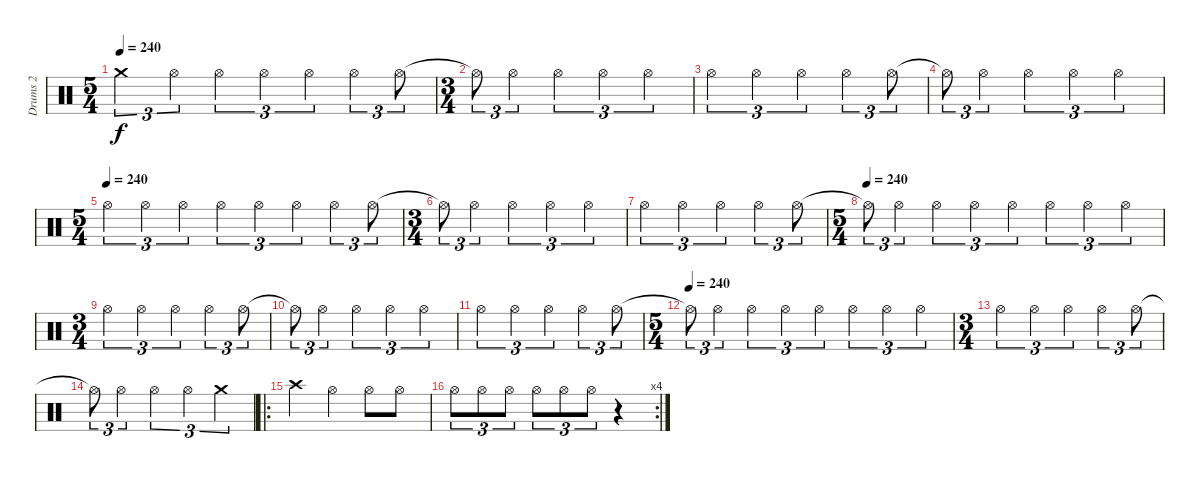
\track ("Drums 2" "Drums 2") {instrument percussion}
\staff {score}
\articulation defaults
\ts (5 4)
\tempo 250
\tempo 240
\clef neutral
\ks c "Crash medium (hit)".2{tu (3 2) dy f} "Hi-Hat (open)".4{tu (3 2)} "Hi-Hat (open)".4{tu (3 2)} "Hi-Hat (open)".4{tu (3 2)} "Hi-Hat (open)".4{tu (3 2)} "Hi-Hat (open)".4{tu (3 2)} "Hi-Hat (open)".8{tu (3 2)}
|
\ts (3 4)
"Hi-Hat (open)"{t}.8{tu (3 2)} "Hi-Hat (open)".4{tu (3 2)} "Hi-Hat (open)".4{tu (3 2)} "Hi-Hat (open)".4{tu (3 2)} "Hi-Hat (open)".4{tu (3 2)} |
"Hi-Hat (open)".4{tu (3 2)} "Hi-Hat (open)".4{tu (3 2)} "Hi-Hat (open)".4{tu (3 2)} "Hi-Hat (open)".4{tu (3 2)} "Hi-Hat (open)".8{tu (3 2)} |
"Hi-Hat (open)"{t}.8{tu (3 2)} "Hi-Hat (open)".4{tu (3 2)} "Hi-Hat (open)".4{tu (3 2)} "Hi-Hat (open)".4{tu (3 2)} "Hi-Hat (open)".4{tu (3 2)} |
\ts (5 4)
\tempo (240)
"Hi-Hat (open)".4{tu (3 2)} "Hi-Hat (open)".4{tu (3 2)} "Hi-Hat (open)".4{tu (3 2)} "Hi-Hat (open)".4{tu (3 2)} "Hi-Hat (open)".4{tu (3 2)} "Hi-Hat (open)".4{tu (3 2)} "Hi-Hat (open)".4{tu (3 2)} "Hi-Hat (open)".8{tu (3 2)} |
\ts (3 4)
"Hi-Hat (open)"{t}.8{tu (3 2)} "Hi-Hat (open)".4{tu (3 2)} "Hi-Hat (open)".4{tu (3 2)} "Hi-Hat (open)".4{tu (3 2)} "Hi-Hat (open)".4{tu (3 2)} |
"Hi-Hat (open)".4{tu (3 2)} "Hi-Hat (open)".4{tu (3 2)} "Hi-Hat (open)".4{tu (3 2)} "Hi-Hat (open)".4{tu (3 2)} "Hi-Hat (open)".8{tu (3 2)} |
\ts (5 4)
\tempo (240)
"Hi-Hat (open)"{t}.8{tu (3 2)} "Hi-Hat (open)".4{tu (3 2)} "Hi-Hat (open)".4{tu (3 2)} "Hi-Hat (open)".4{tu (3 2)} "Hi-Hat (open)".4{tu (3 2)} "Hi-Hat (open)".4{tu (3 2)} "Hi-Hat (open)".4{tu (3 2)} "Hi-Hat (open)".4{tu (3 2)} |
\ts (3 4)
"Hi-Hat (open)".4{tu (3 2)} "Hi-Hat (open)".4{tu (3 2)} "Hi-Hat (open)".4{tu (3 2)} "Hi-Hat (open)".4{tu (3 2)} "Hi-Hat (open)".8{tu (3 2)} |
"Hi-Hat (open)"{t}.8{tu (3 2)} "Hi-Hat (open)".4{tu (3 2)} "Hi-Hat (open)".4{tu (3 2)} "Hi-Hat (open)".4{tu (3 2)} "Hi-Hat (open)".4{tu (3 2)} |
"Hi-Hat (open)".4{tu (3 2)} "Hi-Hat (open)".4{tu (3 2)} "Hi-Hat (open)".4{tu (3 2)} "Hi-Hat (open)".4{tu (3 2)} "Hi-Hat (open)".8{tu (3 2)} |
\ts (5 4)
\tempo (240)
"Hi-Hat (open)"{t}.8{tu (3 2)} "Hi-Hat (open)".4{tu (3 2)} "Hi-Hat (open)".4{tu (3 2)} "Hi-Hat (open)".4{tu (3 2)} "Hi-Hat (open)".4{tu (3 2)} "Hi-Hat (open)".4{tu (3 2)} "Hi-Hat (open)".4{tu (3 2)} "Hi-Hat (open)".4{tu (3 2)} |
\ts (3 4)
"Hi-Hat (open)".4{tu (3 2)} "Hi-Hat (open)".4{tu (3 2)} "Hi-Hat (open)".4{tu (3 2)} "Hi-Hat (open)".4{tu (3 2)} "Hi-Hat (open)".8{tu (3 2)} |
"Hi-Hat (open)"{t}.8{tu (3 2)} "Hi-Hat (open)".4{tu (3 2)} "Hi-Hat (open)".4{tu (3 2)} "Hi-Hat (open)".4{tu (3 2)} "Crash medium (hit)".4{tu (3 2)} |
\ro "Crash high (hit)".4 "Hi-Hat (open)".4 "Hi-Hat (open)".8 "Hi-Hat (open)".8
|
\rc 4 "Hi-Hat (open)".8{tu (3 2)} "Hi-Hat (open)".8{tu (3 2)} "Hi-Hat (open)".8{tu (3 2)} "Hi-Hat (open)".8{tu (3 2)} "Hi-Hat (open)".8{tu (3 2)} "Hi-Hat (open)".8{tu (3 2)}
r.4
